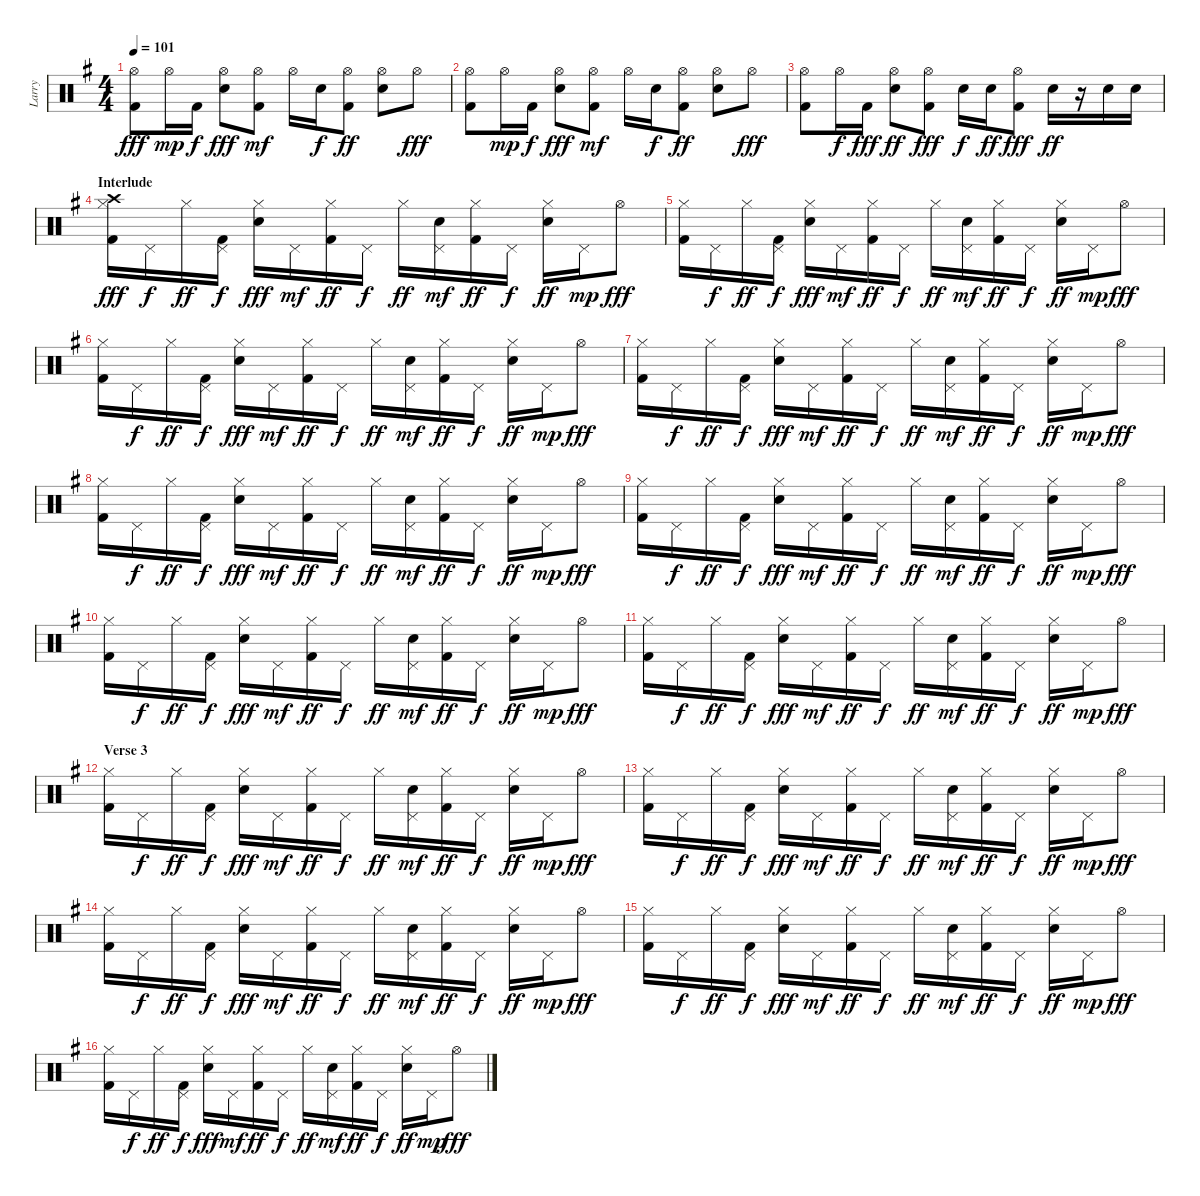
\track ("Larry" "Larry") {instrument percussion}
\staff {score}
\articulation defaults
\ts (4 4)
\tempo 101
\clef neutral
\ks eminor
("Hi-Hat (open)" "Kick (hit) 2").8{dy fff} "Hi-Hat (open)".16{dy mp} "Kick (hit) 2".16{dy f} ("Hi-Hat (open)" "Snare (hit) 2").8{dy fff} ("Hi-Hat (open)" "Kick (hit) 2").8{dy mf} "Hi-Hat (open)".16 "Snare (hit) 2".16{dy f} ("Hi-Hat (open)" "Kick (hit) 2").8{dy ff} ("Hi-Hat (open)" "Snare (hit) 2").8 "Hi-Hat (open)".8{dy fff} |
("Hi-Hat (open)" "Kick (hit) 2").8 "Hi-Hat (open)".16{dy mp} "Kick (hit) 2".16{dy f} ("Hi-Hat (open)" "Snare (hit) 2").8{dy fff} ("Hi-Hat (open)" "Kick (hit) 2").8{dy mf} "Hi-Hat (open)".16 "Snare (hit) 2".16{dy f} ("Hi-Hat (open)" "Kick (hit) 2").8{dy ff} ("Hi-Hat (open)" "Snare (hit) 2").8 "Hi-Hat (open)".8{dy fff} |
("Hi-Hat (open)" "Kick (hit) 2").8 "Hi-Hat (open)".16{dy f} "Kick (hit) 2".16{dy fff} ("Hi-Hat (open)" "Snare (hit) 2").8{dy ff} ("Hi-Hat (open)" "Kick (hit) 2").8{dy fff} "Snare (hit) 2".16{dy f} "Snare (hit) 2".16{dy ff} ("Hi-Hat (open)" "Kick (hit) 2").8{dy fff} "Snare (hit) 2".16{dy ff} r.16 "Snare (hit) 2".16 "Snare (hit) 2".16 |
\section ("" "Interlude")
("Hi-Hat (closed)" "Kick (hit) 2" "Crash high (hit)").16{dy fff} "Pedal Hi-Hat (hit)".16{dy f} "Hi-Hat (closed)".16{dy ff} ("Kick (hit) 2" "Pedal Hi-Hat (hit)").16{dy f} ("Hi-Hat (closed)" "Snare (hit) 2").16{dy fff} "Pedal Hi-Hat (hit)".16{dy mf} ("Hi-Hat (closed)" "Kick (hit) 2").16{dy ff} "Pedal Hi-Hat (hit)".16{dy f} "Hi-Hat (closed)".16{dy ff} ("Snare (hit) 2" "Pedal Hi-Hat (hit)").16{dy mf} ("Hi-Hat (closed)" "Kick (hit) 2").16{dy ff} "Pedal Hi-Hat (hit)".16{dy f} ("Hi-Hat (closed)" "Snare (hit) 2").16{dy ff} "Pedal Hi-Hat (hit)".16{dy mp} "Hi-Hat (open)".8{dy fff} |
("Hi-Hat (closed)" "Kick (hit) 2").16 "Pedal Hi-Hat (hit)".16{dy f} "Hi-Hat (closed)".16{dy ff} ("Kick (hit) 2" "Pedal Hi-Hat (hit)").16{dy f} ("Hi-Hat (closed)" "Snare (hit) 2").16{dy fff} "Pedal Hi-Hat (hit)".16{dy mf} ("Hi-Hat (closed)" "Kick (hit) 2").16{dy ff} "Pedal Hi-Hat (hit)".16{dy f} "Hi-Hat (closed)".16{dy ff} ("Snare (hit) 2" "Pedal Hi-Hat (hit)").16{dy mf} ("Hi-Hat (closed)" "Kick (hit) 2").16{dy ff} "Pedal Hi-Hat (hit)".16{dy f} ("Hi-Hat (closed)" "Snare (hit) 2").16{dy ff} "Pedal Hi-Hat (hit)".16{dy mp} "Hi-Hat (open)".8{dy fff} |
("Hi-Hat (closed)" "Kick (hit) 2").16 "Pedal Hi-Hat (hit)".16{dy f} "Hi-Hat (closed)".16{dy ff} ("Kick (hit) 2" "Pedal Hi-Hat (hit)").16{dy f} ("Hi-Hat (closed)" "Snare (hit) 2").16{dy fff} "Pedal Hi-Hat (hit)".16{dy mf} ("Hi-Hat (closed)" "Kick (hit) 2").16{dy ff} "Pedal Hi-Hat (hit)".16{dy f} "Hi-Hat (closed)".16{dy ff} ("Snare (hit) 2" "Pedal Hi-Hat (hit)").16{dy mf} ("Hi-Hat (closed)" "Kick (hit) 2").16{dy ff} "Pedal Hi-Hat (hit)".16{dy f} ("Hi-Hat (closed)" "Snare (hit) 2").16{dy ff} "Pedal Hi-Hat (hit)".16{dy mp} "Hi-Hat (open)".8{dy fff} |
("Hi-Hat (closed)" "Kick (hit) 2").16 "Pedal Hi-Hat (hit)".16{dy f} "Hi-Hat (closed)".16{dy ff} ("Kick (hit) 2" "Pedal Hi-Hat (hit)").16{dy f} ("Hi-Hat (closed)" "Snare (hit) 2").16{dy fff} "Pedal Hi-Hat (hit)".16{dy mf} ("Hi-Hat (closed)" "Kick (hit) 2").16{dy ff} "Pedal Hi-Hat (hit)".16{dy f} "Hi-Hat (closed)".16{dy ff} ("Snare (hit) 2" "Pedal Hi-Hat (hit)").16{dy mf} ("Hi-Hat (closed)" "Kick (hit) 2").16{dy ff} "Pedal Hi-Hat (hit)".16{dy f} ("Hi-Hat (closed)" "Snare (hit) 2").16{dy ff} "Pedal Hi-Hat (hit)".16{dy mp} "Hi-Hat (open)".8{dy fff} |
("Hi-Hat (closed)" "Kick (hit) 2").16 "Pedal Hi-Hat (hit)".16{dy f} "Hi-Hat (closed)".16{dy ff} ("Kick (hit) 2" "Pedal Hi-Hat (hit)").16{dy f} ("Hi-Hat (closed)" "Snare (hit) 2").16{dy fff} "Pedal Hi-Hat (hit)".16{dy mf} ("Hi-Hat (closed)" "Kick (hit) 2").16{dy ff} "Pedal Hi-Hat (hit)".16{dy f} "Hi-Hat (closed)".16{dy ff} ("Snare (hit) 2" "Pedal Hi-Hat (hit)").16{dy mf} ("Hi-Hat (closed)" "Kick (hit) 2").16{dy ff} "Pedal Hi-Hat (hit)".16{dy f} ("Hi-Hat (closed)" "Snare (hit) 2").16{dy ff} "Pedal Hi-Hat (hit)".16{dy mp} "Hi-Hat (open)".8{dy fff} |
("Hi-Hat (closed)" "Kick (hit) 2").16 "Pedal Hi-Hat (hit)".16{dy f} "Hi-Hat (closed)".16{dy ff} ("Kick (hit) 2" "Pedal Hi-Hat (hit)").16{dy f} ("Hi-Hat (closed)" "Snare (hit) 2").16{dy fff} "Pedal Hi-Hat (hit)".16{dy mf} ("Hi-Hat (closed)" "Kick (hit) 2").16{dy ff} "Pedal Hi-Hat (hit)".16{dy f} "Hi-Hat (closed)".16{dy ff} ("Snare (hit) 2" "Pedal Hi-Hat (hit)").16{dy mf} ("Hi-Hat (closed)" "Kick (hit) 2").16{dy ff} "Pedal Hi-Hat (hit)".16{dy f} ("Hi-Hat (closed)" "Snare (hit) 2").16{dy ff} "Pedal Hi-Hat (hit)".16{dy mp} "Hi-Hat (open)".8{dy fff} |
("Hi-Hat (closed)" "Kick (hit) 2").16 "Pedal Hi-Hat (hit)".16{dy f} "Hi-Hat (closed)".16{dy ff} ("Kick (hit) 2" "Pedal Hi-Hat (hit)").16{dy f} ("Hi-Hat (closed)" "Snare (hit) 2").16{dy fff} "Pedal Hi-Hat (hit)".16{dy mf} ("Hi-Hat (closed)" "Kick (hit) 2").16{dy ff} "Pedal Hi-Hat (hit)".16{dy f} "Hi-Hat (closed)".16{dy ff} ("Snare (hit) 2" "Pedal Hi-Hat (hit)").16{dy mf} ("Hi-Hat (closed)" "Kick (hit) 2").16{dy ff} "Pedal Hi-Hat (hit)".16{dy f} ("Hi-Hat (closed)" "Snare (hit) 2").16{dy ff} "Pedal Hi-Hat (hit)".16{dy mp} "Hi-Hat (open)".8{dy fff} |
("Hi-Hat (closed)" "Kick (hit) 2").16 "Pedal Hi-Hat (hit)".16{dy f} "Hi-Hat (closed)".16{dy ff} ("Kick (hit) 2" "Pedal Hi-Hat (hit)").16{dy f} ("Hi-Hat (closed)" "Snare (hit) 2").16{dy fff} "Pedal Hi-Hat (hit)".16{dy mf} ("Hi-Hat (closed)" "Kick (hit) 2").16{dy ff} "Pedal Hi-Hat (hit)".16{dy f} "Hi-Hat (closed)".16{dy ff} ("Snare (hit) 2" "Pedal Hi-Hat (hit)").16{dy mf} ("Hi-Hat (closed)" "Kick (hit) 2").16{dy ff} "Pedal Hi-Hat (hit)".16{dy f} ("Hi-Hat (closed)" "Snare (hit) 2").16{dy ff} "Pedal Hi-Hat (hit)".16{dy mp} "Hi-Hat (open)".8{dy fff} |
\section ("" "Verse 3")
("Hi-Hat (closed)" "Kick (hit) 2").16 "Pedal Hi-Hat (hit)".16{dy f} "Hi-Hat (closed)".16{dy ff} ("Kick (hit) 2" "Pedal Hi-Hat (hit)").16{dy f} ("Hi-Hat (closed)" "Snare (hit) 2").16{dy fff} "Pedal Hi-Hat (hit)".16{dy mf} ("Hi-Hat (closed)" "Kick (hit) 2").16{dy ff} "Pedal Hi-Hat (hit)".16{dy f} "Hi-Hat (closed)".16{dy ff} ("Snare (hit) 2" "Pedal Hi-Hat (hit)").16{dy mf} ("Hi-Hat (closed)" "Kick (hit) 2").16{dy ff} "Pedal Hi-Hat (hit)".16{dy f} ("Hi-Hat (closed)" "Snare (hit) 2").16{dy ff} "Pedal Hi-Hat (hit)".16{dy mp} "Hi-Hat (open)".8{dy fff} |
("Hi-Hat (closed)" "Kick (hit) 2").16 "Pedal Hi-Hat (hit)".16{dy f} "Hi-Hat (closed)".16{dy ff} ("Kick (hit) 2" "Pedal Hi-Hat (hit)").16{dy f} ("Hi-Hat (closed)" "Snare (hit) 2").16{dy fff} "Pedal Hi-Hat (hit)".16{dy mf} ("Hi-Hat (closed)" "Kick (hit) 2").16{dy ff} "Pedal Hi-Hat (hit)".16{dy f} "Hi-Hat (closed)".16{dy ff} ("Snare (hit) 2" "Pedal Hi-Hat (hit)").16{dy mf} ("Hi-Hat (closed)" "Kick (hit) 2").16{dy ff} "Pedal Hi-Hat (hit)".16{dy f} ("Hi-Hat (closed)" "Snare (hit) 2").16{dy ff} "Pedal Hi-Hat (hit)".16{dy mp} "Hi-Hat (open)".8{dy fff} |
("Hi-Hat (closed)" "Kick (hit) 2").16 "Pedal Hi-Hat (hit)".16{dy f} "Hi-Hat (closed)".16{dy ff} ("Kick (hit) 2" "Pedal Hi-Hat (hit)").16{dy f} ("Hi-Hat (closed)" "Snare (hit) 2").16{dy fff} "Pedal Hi-Hat (hit)".16{dy mf} ("Hi-Hat (closed)" "Kick (hit) 2").16{dy ff} "Pedal Hi-Hat (hit)".16{dy f} "Hi-Hat (closed)".16{dy ff} ("Snare (hit) 2" "Pedal Hi-Hat (hit)").16{dy mf} ("Hi-Hat (closed)" "Kick (hit) 2").16{dy ff} "Pedal Hi-Hat (hit)".16{dy f} ("Hi-Hat (closed)" "Snare (hit) 2").16{dy ff} "Pedal Hi-Hat (hit)".16{dy mp} "Hi-Hat (open)".8{dy fff} |
("Hi-Hat (closed)" "Kick (hit) 2").16 "Pedal Hi-Hat (hit)".16{dy f} "Hi-Hat (closed)".16{dy ff} ("Kick (hit) 2" "Pedal Hi-Hat (hit)").16{dy f} ("Hi-Hat (closed)" "Snare (hit) 2").16{dy fff} "Pedal Hi-Hat (hit)".16{dy mf} ("Hi-Hat (closed)" "Kick (hit) 2").16{dy ff} "Pedal Hi-Hat (hit)".16{dy f} "Hi-Hat (closed)".16{dy ff} ("Snare (hit) 2" "Pedal Hi-Hat (hit)").16{dy mf} ("Hi-Hat (closed)" "Kick (hit) 2").16{dy ff} "Pedal Hi-Hat (hit)".16{dy f} ("Hi-Hat (closed)" "Snare (hit) 2").16{dy ff} "Pedal Hi-Hat (hit)".16{dy mp} "Hi-Hat (open)".8{dy fff} |
("Hi-Hat (closed)" "Kick (hit) 2").16 "Pedal Hi-Hat (hit)".16{dy f} "Hi-Hat (closed)".16{dy ff} ("Kick (hit) 2" "Pedal Hi-Hat (hit)").16{dy f} ("Hi-Hat (closed)" "Snare (hit) 2").16{dy fff} "Pedal Hi-Hat (hit)".16{dy mf} ("Hi-Hat (closed)" "Kick (hit) 2").16{dy ff} "Pedal Hi-Hat (hit)".16{dy f} "Hi-Hat (closed)".16{dy ff} ("Snare (hit) 2" "Pedal Hi-Hat (hit)").16{dy mf} ("Hi-Hat (closed)" "Kick (hit) 2").16{dy ff} "Pedal Hi-Hat (hit)".16{dy f} ("Hi-Hat (closed)" "Snare (hit) 2").16{dy ff} "Pedal Hi-Hat (hit)".16{dy mp} "Hi-Hat (open)".8{dy fff}
